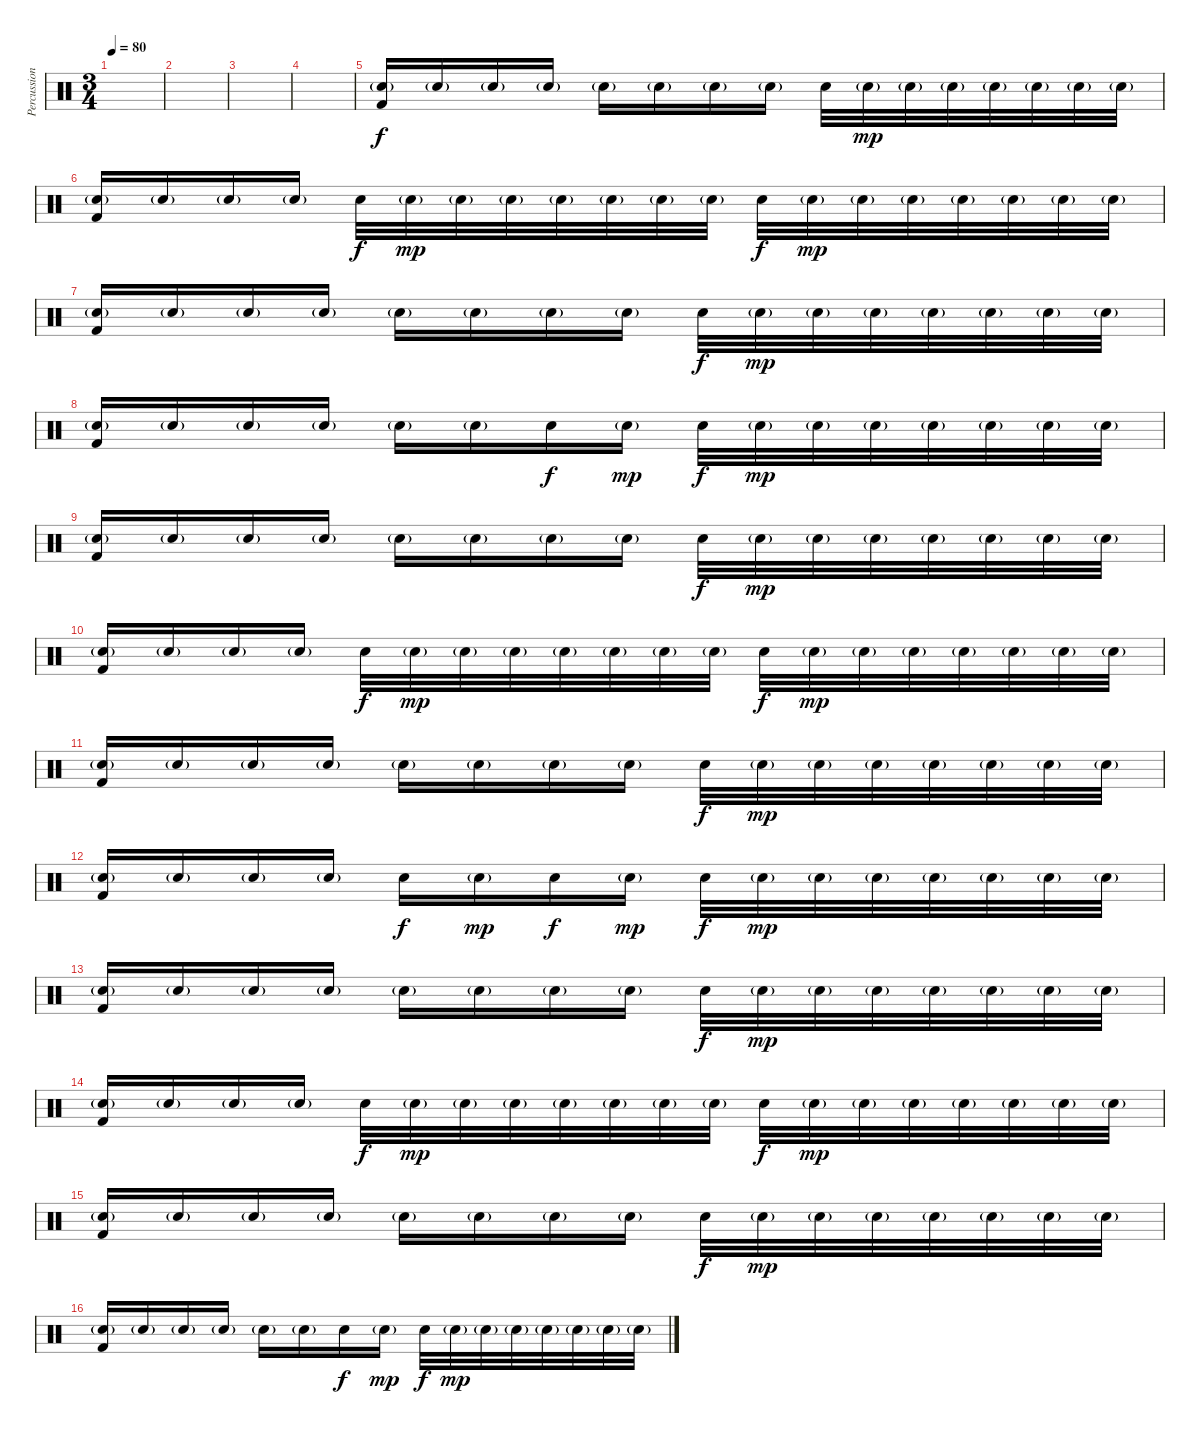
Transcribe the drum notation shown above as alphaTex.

\track ("Percussion" "Percussion") {instrument percussion}
\staff {score}
\articulation defaults
\ts (3 4)
\tempo 80
\clef neutral
\ks c
|
|
|
|
("Electric Snare (hit)"{g} "Kick (hit) 2").16 "Electric Snare (hit)"{g}.16 "Electric Snare (hit)"{g}.16 "Electric Snare (hit)"{g}.16 "Electric Snare (hit)"{g}.16 "Electric Snare (hit)"{g}.16 "Electric Snare (hit)"{g}.16 "Electric Snare (hit)"{g}.16 "Electric Snare (hit)".32{dy f} "Electric Snare (hit)"{g}.32{dy mp} "Electric Snare (hit)"{g}.32 "Electric Snare (hit)"{g}.32 "Electric Snare (hit)"{g}.32 "Electric Snare (hit)"{g}.32 "Electric Snare (hit)"{g}.32 "Electric Snare (hit)"{g}.32 |
("Electric Snare (hit)"{g} "Kick (hit) 2").16 "Electric Snare (hit)"{g}.16 "Electric Snare (hit)"{g}.16 "Electric Snare (hit)"{g}.16 "Electric Snare (hit)".32{dy f} "Electric Snare (hit)"{g}.32{dy mp} "Electric Snare (hit)"{g}.32 "Electric Snare (hit)"{g}.32 "Electric Snare (hit)"{g}.32 "Electric Snare (hit)"{g}.32 "Electric Snare (hit)"{g}.32 "Electric Snare (hit)"{g}.32 "Electric Snare (hit)".32{dy f} "Electric Snare (hit)"{g}.32{dy mp} "Electric Snare (hit)"{g}.32 "Electric Snare (hit)"{g}.32 "Electric Snare (hit)"{g}.32 "Electric Snare (hit)"{g}.32 "Electric Snare (hit)"{g}.32 "Electric Snare (hit)"{g}.32 |
("Electric Snare (hit)"{g} "Kick (hit) 2").16 "Electric Snare (hit)"{g}.16 "Electric Snare (hit)"{g}.16 "Electric Snare (hit)"{g}.16 "Electric Snare (hit)"{g}.16 "Electric Snare (hit)"{g}.16 "Electric Snare (hit)"{g}.16 "Electric Snare (hit)"{g}.16 "Electric Snare (hit)".32{dy f} "Electric Snare (hit)"{g}.32{dy mp} "Electric Snare (hit)"{g}.32 "Electric Snare (hit)"{g}.32 "Electric Snare (hit)"{g}.32 "Electric Snare (hit)"{g}.32 "Electric Snare (hit)"{g}.32 "Electric Snare (hit)"{g}.32 |
("Electric Snare (hit)"{g} "Kick (hit) 2").16 "Electric Snare (hit)"{g}.16 "Electric Snare (hit)"{g}.16 "Electric Snare (hit)"{g}.16 "Electric Snare (hit)"{g}.16 "Electric Snare (hit)"{g}.16 "Electric Snare (hit)".16{dy f} "Electric Snare (hit)"{g}.16{dy mp} "Electric Snare (hit)".32{dy f} "Electric Snare (hit)"{g}.32{dy mp} "Electric Snare (hit)"{g}.32 "Electric Snare (hit)"{g}.32 "Electric Snare (hit)"{g}.32 "Electric Snare (hit)"{g}.32 "Electric Snare (hit)"{g}.32 "Electric Snare (hit)"{g}.32 |
("Electric Snare (hit)"{g} "Kick (hit) 2").16 "Electric Snare (hit)"{g}.16 "Electric Snare (hit)"{g}.16 "Electric Snare (hit)"{g}.16 "Electric Snare (hit)"{g}.16 "Electric Snare (hit)"{g}.16 "Electric Snare (hit)"{g}.16 "Electric Snare (hit)"{g}.16 "Electric Snare (hit)".32{dy f} "Electric Snare (hit)"{g}.32{dy mp} "Electric Snare (hit)"{g}.32 "Electric Snare (hit)"{g}.32 "Electric Snare (hit)"{g}.32 "Electric Snare (hit)"{g}.32 "Electric Snare (hit)"{g}.32 "Electric Snare (hit)"{g}.32 |
("Electric Snare (hit)"{g} "Kick (hit) 2").16 "Electric Snare (hit)"{g}.16 "Electric Snare (hit)"{g}.16 "Electric Snare (hit)"{g}.16 "Electric Snare (hit)".32{dy f} "Electric Snare (hit)"{g}.32{dy mp} "Electric Snare (hit)"{g}.32 "Electric Snare (hit)"{g}.32 "Electric Snare (hit)"{g}.32 "Electric Snare (hit)"{g}.32 "Electric Snare (hit)"{g}.32 "Electric Snare (hit)"{g}.32 "Electric Snare (hit)".32{dy f} "Electric Snare (hit)"{g}.32{dy mp} "Electric Snare (hit)"{g}.32 "Electric Snare (hit)"{g}.32 "Electric Snare (hit)"{g}.32 "Electric Snare (hit)"{g}.32 "Electric Snare (hit)"{g}.32 "Electric Snare (hit)"{g}.32 |
("Electric Snare (hit)"{g} "Kick (hit) 2").16 "Electric Snare (hit)"{g}.16 "Electric Snare (hit)"{g}.16 "Electric Snare (hit)"{g}.16 "Electric Snare (hit)"{g}.16 "Electric Snare (hit)"{g}.16 "Electric Snare (hit)"{g}.16 "Electric Snare (hit)"{g}.16 "Electric Snare (hit)".32{dy f} "Electric Snare (hit)"{g}.32{dy mp} "Electric Snare (hit)"{g}.32 "Electric Snare (hit)"{g}.32 "Electric Snare (hit)"{g}.32 "Electric Snare (hit)"{g}.32 "Electric Snare (hit)"{g}.32 "Electric Snare (hit)"{g}.32 |
("Electric Snare (hit)"{g} "Kick (hit) 2").16 "Electric Snare (hit)"{g}.16 "Electric Snare (hit)"{g}.16 "Electric Snare (hit)"{g}.16 "Electric Snare (hit)".16{dy f} "Electric Snare (hit)"{g}.16{dy mp} "Electric Snare (hit)".16{dy f} "Electric Snare (hit)"{g}.16{dy mp} "Electric Snare (hit)".32{dy f} "Electric Snare (hit)"{g}.32{dy mp} "Electric Snare (hit)"{g}.32 "Electric Snare (hit)"{g}.32 "Electric Snare (hit)"{g}.32 "Electric Snare (hit)"{g}.32 "Electric Snare (hit)"{g}.32 "Electric Snare (hit)"{g}.32 |
("Electric Snare (hit)"{g} "Kick (hit) 2").16 "Electric Snare (hit)"{g}.16 "Electric Snare (hit)"{g}.16 "Electric Snare (hit)"{g}.16 "Electric Snare (hit)"{g}.16 "Electric Snare (hit)"{g}.16 "Electric Snare (hit)"{g}.16 "Electric Snare (hit)"{g}.16 "Electric Snare (hit)".32{dy f} "Electric Snare (hit)"{g}.32{dy mp} "Electric Snare (hit)"{g}.32 "Electric Snare (hit)"{g}.32 "Electric Snare (hit)"{g}.32 "Electric Snare (hit)"{g}.32 "Electric Snare (hit)"{g}.32 "Electric Snare (hit)"{g}.32 |
("Electric Snare (hit)"{g} "Kick (hit) 2").16 "Electric Snare (hit)"{g}.16 "Electric Snare (hit)"{g}.16 "Electric Snare (hit)"{g}.16 "Electric Snare (hit)".32{dy f} "Electric Snare (hit)"{g}.32{dy mp} "Electric Snare (hit)"{g}.32 "Electric Snare (hit)"{g}.32 "Electric Snare (hit)"{g}.32 "Electric Snare (hit)"{g}.32 "Electric Snare (hit)"{g}.32 "Electric Snare (hit)"{g}.32 "Electric Snare (hit)".32{dy f} "Electric Snare (hit)"{g}.32{dy mp} "Electric Snare (hit)"{g}.32 "Electric Snare (hit)"{g}.32 "Electric Snare (hit)"{g}.32 "Electric Snare (hit)"{g}.32 "Electric Snare (hit)"{g}.32 "Electric Snare (hit)"{g}.32 |
("Electric Snare (hit)"{g} "Kick (hit) 2").16 "Electric Snare (hit)"{g}.16 "Electric Snare (hit)"{g}.16 "Electric Snare (hit)"{g}.16 "Electric Snare (hit)"{g}.16 "Electric Snare (hit)"{g}.16 "Electric Snare (hit)"{g}.16 "Electric Snare (hit)"{g}.16 "Electric Snare (hit)".32{dy f} "Electric Snare (hit)"{g}.32{dy mp} "Electric Snare (hit)"{g}.32 "Electric Snare (hit)"{g}.32 "Electric Snare (hit)"{g}.32 "Electric Snare (hit)"{g}.32 "Electric Snare (hit)"{g}.32 "Electric Snare (hit)"{g}.32 |
("Electric Snare (hit)"{g} "Kick (hit) 2").16 "Electric Snare (hit)"{g}.16 "Electric Snare (hit)"{g}.16 "Electric Snare (hit)"{g}.16 "Electric Snare (hit)"{g}.16 "Electric Snare (hit)"{g}.16 "Electric Snare (hit)".16{dy f} "Electric Snare (hit)"{g}.16{dy mp} "Electric Snare (hit)".32{dy f} "Electric Snare (hit)"{g}.32{dy mp} "Electric Snare (hit)"{g}.32 "Electric Snare (hit)"{g}.32 "Electric Snare (hit)"{g}.32 "Electric Snare (hit)"{g}.32 "Electric Snare (hit)"{g}.32 "Electric Snare (hit)"{g}.32
